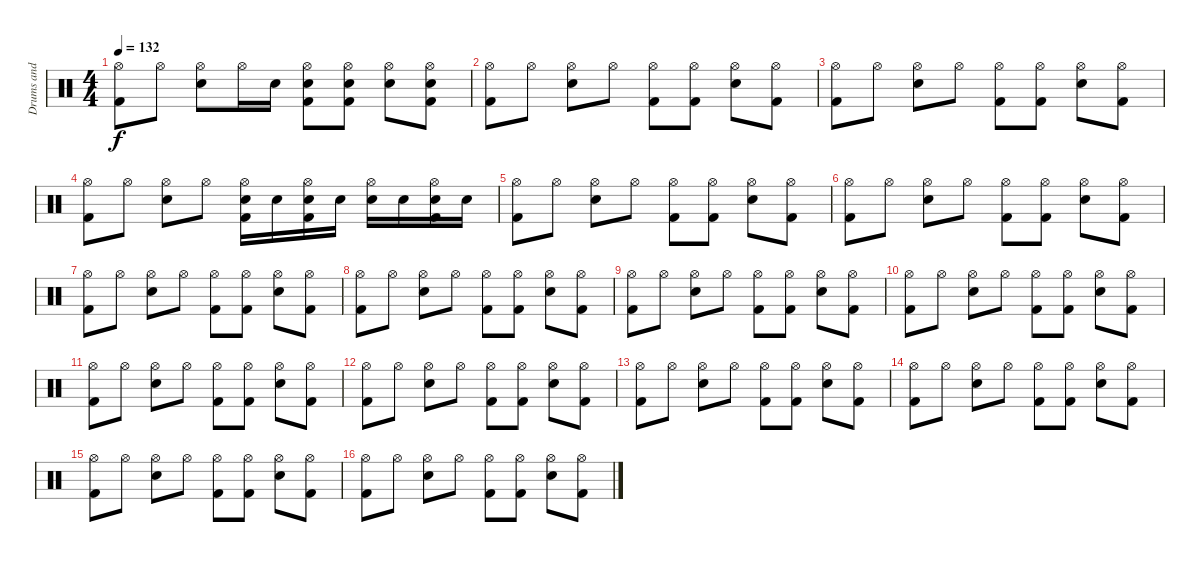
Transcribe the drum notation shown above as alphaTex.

\track ("Drums and Percussion" "Drums and ") {instrument percussion}
\staff {score}
\articulation defaults
\ts (4 4)
\tempo 132
\clef neutral
\ks c
("Hi-Hat (open)" "Kick (hit) 2").8{dy f} "Hi-Hat (open)".8 ("Hi-Hat (open)" "Snare (hit) 2").8 "Hi-Hat (open)".16 "Snare (hit) 2".16 ("Hi-Hat (open)" "Snare (hit) 2" "Kick (hit) 2").8 ("Hi-Hat (open)" "Snare (hit) 2" "Kick (hit) 2").8 ("Hi-Hat (open)" "Snare (hit) 2").8 ("Hi-Hat (open)" "Snare (hit) 2" "Kick (hit) 2").8 |
("Hi-Hat (open)" "Kick (hit) 2").8 "Hi-Hat (open)".8 ("Hi-Hat (open)" "Snare (hit) 2").8 "Hi-Hat (open)".8 ("Hi-Hat (open)" "Kick (hit) 2").8 ("Hi-Hat (open)" "Kick (hit) 2").8 ("Hi-Hat (open)" "Snare (hit) 2").8 ("Hi-Hat (open)" "Kick (hit) 2").8 |
("Hi-Hat (open)" "Kick (hit) 2").8 "Hi-Hat (open)".8 ("Hi-Hat (open)" "Snare (hit) 2").8 "Hi-Hat (open)".8 ("Hi-Hat (open)" "Kick (hit) 2").8 ("Hi-Hat (open)" "Kick (hit) 2").8 ("Hi-Hat (open)" "Snare (hit) 2").8 ("Hi-Hat (open)" "Kick (hit) 2").8 |
("Hi-Hat (open)" "Kick (hit) 2").8 "Hi-Hat (open)".8 ("Hi-Hat (open)" "Snare (hit) 2").8 "Hi-Hat (open)".8 ("Hi-Hat (open)" "Snare (hit) 2" "Kick (hit) 2").16 "Snare (hit) 2".16 ("Hi-Hat (open)" "Snare (hit) 2" "Kick (hit) 2").16 "Snare (hit) 2".16 ("Hi-Hat (open)" "Snare (hit) 2").16 "Snare (hit) 2".16 ("Hi-Hat (open)" "Snare (hit) 2" "Kick (hit) 2").16 "Snare (hit) 2".16 |
("Hi-Hat (open)" "Kick (hit) 2").8 "Hi-Hat (open)".8 ("Hi-Hat (open)" "Snare (hit) 2").8 "Hi-Hat (open)".8 ("Hi-Hat (open)" "Kick (hit) 2").8 ("Hi-Hat (open)" "Kick (hit) 2").8 ("Hi-Hat (open)" "Snare (hit) 2").8 ("Hi-Hat (open)" "Kick (hit) 2").8 |
("Hi-Hat (open)" "Kick (hit) 2").8 "Hi-Hat (open)".8 ("Hi-Hat (open)" "Snare (hit) 2").8 "Hi-Hat (open)".8 ("Hi-Hat (open)" "Kick (hit) 2").8 ("Hi-Hat (open)" "Kick (hit) 2").8 ("Hi-Hat (open)" "Snare (hit) 2").8 ("Hi-Hat (open)" "Kick (hit) 2").8 |
("Hi-Hat (open)" "Kick (hit) 2").8 "Hi-Hat (open)".8 ("Hi-Hat (open)" "Snare (hit) 2").8 "Hi-Hat (open)".8 ("Hi-Hat (open)" "Kick (hit) 2").8 ("Hi-Hat (open)" "Kick (hit) 2").8 ("Hi-Hat (open)" "Snare (hit) 2").8 ("Hi-Hat (open)" "Kick (hit) 2").8 |
("Hi-Hat (open)" "Kick (hit) 2").8 "Hi-Hat (open)".8 ("Hi-Hat (open)" "Snare (hit) 2").8 "Hi-Hat (open)".8 ("Hi-Hat (open)" "Kick (hit) 2").8 ("Hi-Hat (open)" "Kick (hit) 2").8 ("Hi-Hat (open)" "Snare (hit) 2").8 ("Hi-Hat (open)" "Kick (hit) 2").8 |
("Hi-Hat (open)" "Kick (hit) 2").8 "Hi-Hat (open)".8 ("Hi-Hat (open)" "Snare (hit) 2").8 "Hi-Hat (open)".8 ("Hi-Hat (open)" "Kick (hit) 2").8 ("Hi-Hat (open)" "Kick (hit) 2").8 ("Hi-Hat (open)" "Snare (hit) 2").8 ("Hi-Hat (open)" "Kick (hit) 2").8 |
("Hi-Hat (open)" "Kick (hit) 2").8 "Hi-Hat (open)".8 ("Hi-Hat (open)" "Snare (hit) 2").8 "Hi-Hat (open)".8 ("Hi-Hat (open)" "Kick (hit) 2").8 ("Hi-Hat (open)" "Kick (hit) 2").8 ("Hi-Hat (open)" "Snare (hit) 2").8 ("Hi-Hat (open)" "Kick (hit) 2").8 |
("Hi-Hat (open)" "Kick (hit) 2").8 "Hi-Hat (open)".8 ("Hi-Hat (open)" "Snare (hit) 2").8 "Hi-Hat (open)".8 ("Hi-Hat (open)" "Kick (hit) 2").8 ("Hi-Hat (open)" "Kick (hit) 2").8 ("Hi-Hat (open)" "Snare (hit) 2").8 ("Hi-Hat (open)" "Kick (hit) 2").8 |
("Hi-Hat (open)" "Kick (hit) 2").8 "Hi-Hat (open)".8 ("Hi-Hat (open)" "Snare (hit) 2").8 "Hi-Hat (open)".8 ("Hi-Hat (open)" "Kick (hit) 2").8 ("Hi-Hat (open)" "Kick (hit) 2").8 ("Hi-Hat (open)" "Snare (hit) 2").8 ("Hi-Hat (open)" "Kick (hit) 2").8 |
("Hi-Hat (open)" "Kick (hit) 2").8 "Hi-Hat (open)".8 ("Hi-Hat (open)" "Snare (hit) 2").8 "Hi-Hat (open)".8 ("Hi-Hat (open)" "Kick (hit) 2").8 ("Hi-Hat (open)" "Kick (hit) 2").8 ("Hi-Hat (open)" "Snare (hit) 2").8 ("Hi-Hat (open)" "Kick (hit) 2").8 |
("Hi-Hat (open)" "Kick (hit) 2").8 "Hi-Hat (open)".8 ("Hi-Hat (open)" "Snare (hit) 2").8 "Hi-Hat (open)".8 ("Hi-Hat (open)" "Kick (hit) 2").8 ("Hi-Hat (open)" "Kick (hit) 2").8 ("Hi-Hat (open)" "Snare (hit) 2").8 ("Hi-Hat (open)" "Kick (hit) 2").8 |
("Hi-Hat (open)" "Kick (hit) 2").8 "Hi-Hat (open)".8 ("Hi-Hat (open)" "Snare (hit) 2").8 "Hi-Hat (open)".8 ("Hi-Hat (open)" "Kick (hit) 2").8 ("Hi-Hat (open)" "Kick (hit) 2").8 ("Hi-Hat (open)" "Snare (hit) 2").8 ("Hi-Hat (open)" "Kick (hit) 2").8 |
("Hi-Hat (open)" "Kick (hit) 2").8 "Hi-Hat (open)".8 ("Hi-Hat (open)" "Snare (hit) 2").8 "Hi-Hat (open)".8 ("Hi-Hat (open)" "Kick (hit) 2").8 ("Hi-Hat (open)" "Kick (hit) 2").8 ("Hi-Hat (open)" "Snare (hit) 2").8 ("Hi-Hat (open)" "Kick (hit) 2").8
